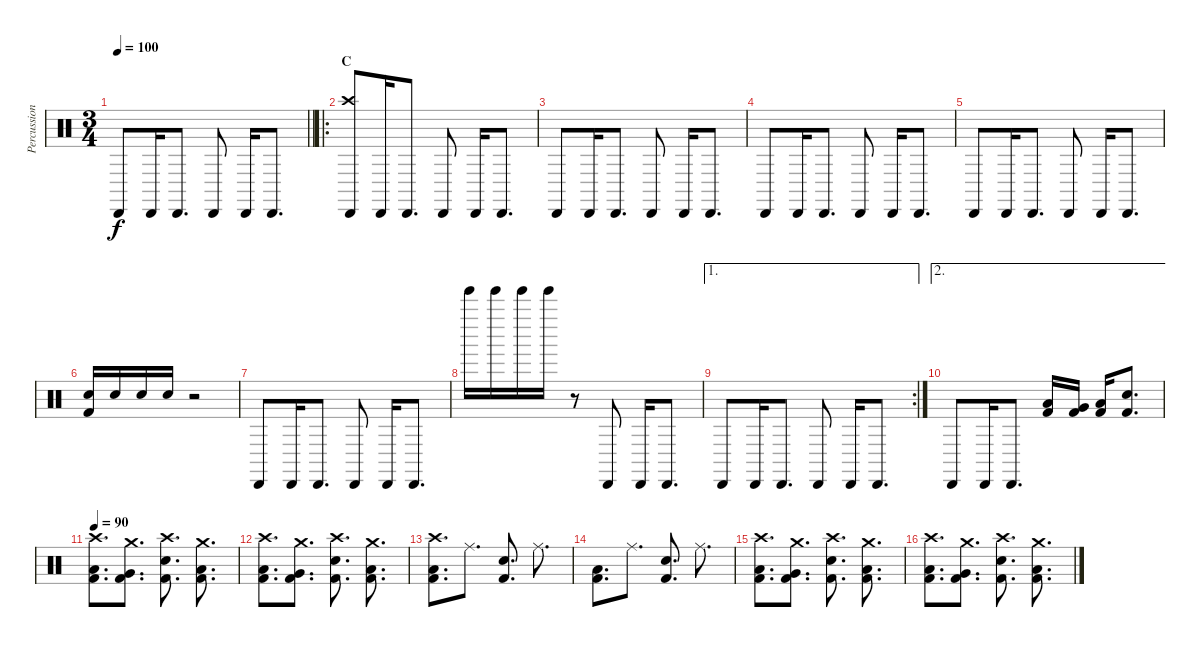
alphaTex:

\track ("Percussion" "Percussion") {instrument percussion}
\staff {score}
\articulation defaults
\ts (3 4)
\tempo 100
\clef neutral
\barLineRight lightlight
\ks c "Cabasa (hit)".8{dy f} "Cabasa (hit)".16 "Cabasa (hit)".8{d} "Cabasa (hit)".8 "Cabasa (hit)".16 "Cabasa (hit)".8{d}
|
\ro
\section ("" "C")
("Cabasa (hit)" "Crash high (hit)").8 "Cabasa (hit)".16 "Cabasa (hit)".8{d} "Cabasa (hit)".8 "Cabasa (hit)".16 "Cabasa (hit)".8{d} |
"Cabasa (hit)".8 "Cabasa (hit)".16 "Cabasa (hit)".8{d} "Cabasa (hit)".8 "Cabasa (hit)".16 "Cabasa (hit)".8{d} |
"Cabasa (hit)".8 "Cabasa (hit)".16 "Cabasa (hit)".8{d} "Cabasa (hit)".8 "Cabasa (hit)".16 "Cabasa (hit)".8{d} |
"Cabasa (hit)".8 "Cabasa (hit)".16 "Cabasa (hit)".8{d} "Cabasa (hit)".8 "Cabasa (hit)".16 "Cabasa (hit)".8{d} |
("Snare (hit) 2" "Kick (hit) 2").16 "Snare (hit) 2".16 "Snare (hit) 2".16 "Snare (hit) 2".16 r.2 |
"Cabasa (hit)".8 "Cabasa (hit)".16 "Cabasa (hit)".8{d} "Cabasa (hit)".8 "Cabasa (hit)".16 "Cabasa (hit)".8{d} |
"Tinkle Bell (hit)".16 "Tinkle Bell (hit)".16 "Tinkle Bell (hit)".16 "Tinkle Bell (hit)".16 r.8 "Cabasa (hit)".8 "Cabasa (hit)".16 "Cabasa (hit)".8{d} |
\ae 1
\rc 2 "Cabasa (hit)".8 "Cabasa (hit)".16 "Cabasa (hit)".8{d} "Cabasa (hit)".8 "Cabasa (hit)".16 "Cabasa (hit)".8{d}
|
\ae 2 "Cabasa (hit)".8 "Cabasa (hit)".16 "Cabasa (hit)".8{d}
("Low Floor Tom (hit)" "Kick (hit) 2").16 ("Very Low Tom (hit)" "Kick (hit) 2").16 ("Low Floor Tom (hit)" "Kick (hit) 2").16 ("Snare (hit) 2" "Kick (hit) 2").8{d} |
\tempo 90
("Crash high (hit)" "Low Floor Tom (hit)" "Kick (hit) 2").8{d} ("Crash medium (hit)" "Very Low Tom (hit)" "Kick (hit) 2").8{d} ("Crash high (hit)" "Snare (hit) 2" "Kick (hit) 2").8{d} ("Crash medium (hit)" "Low Floor Tom (hit)" "Kick (hit) 2").8{d} |
("Crash high (hit)" "Low Floor Tom (hit)" "Kick (hit) 2").8{d} ("Crash medium (hit)" "Very Low Tom (hit)" "Kick (hit) 2").8{d} ("Crash high (hit)" "Snare (hit) 2" "Kick (hit) 2").8{d} ("Crash medium (hit)" "Low Floor Tom (hit)" "Kick (hit) 2").8{d} |
("Crash high (hit)" "Low Floor Tom (hit)" "Kick (hit) 2").8{d} "Ride (middle)".8{d} ("Snare (hit) 2" "Kick (hit) 2").8{d} "Ride (middle)".8{d} |
("Low Floor Tom (hit)" "Kick (hit) 2").8{d} "Ride (middle)".8{d} ("Snare (hit) 2" "Kick (hit) 2").8{d} "Ride (middle)".8{d} |
("Crash high (hit)" "Low Floor Tom (hit)" "Kick (hit) 2").8{d} ("Crash medium (hit)" "Very Low Tom (hit)" "Kick (hit) 2").8{d} ("Crash high (hit)" "Snare (hit) 2" "Kick (hit) 2").8{d} ("Crash medium (hit)" "Low Floor Tom (hit)" "Kick (hit) 2").8{d} |
("Crash high (hit)" "Low Floor Tom (hit)" "Kick (hit) 2").8{d} ("Crash medium (hit)" "Very Low Tom (hit)" "Kick (hit) 2").8{d} ("Crash high (hit)" "Snare (hit) 2" "Kick (hit) 2").8{d} ("Crash medium (hit)" "Low Floor Tom (hit)" "Kick (hit) 2").8{d}
